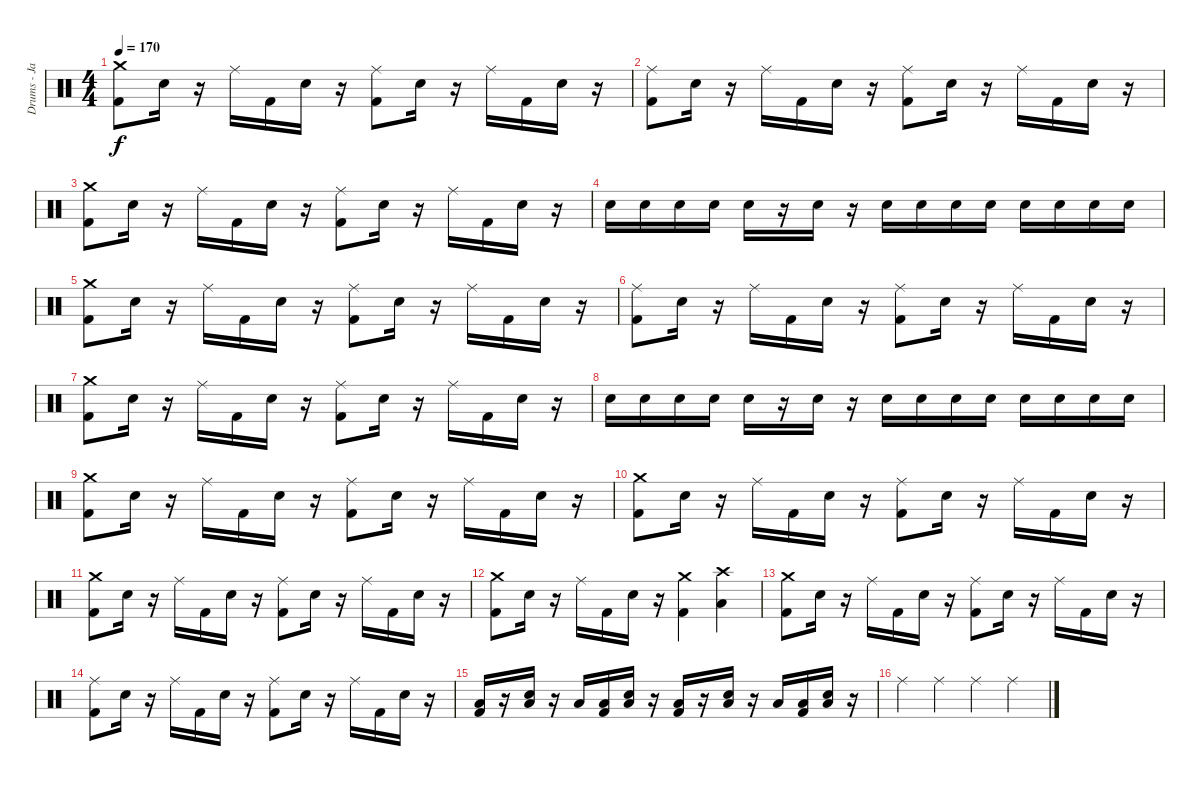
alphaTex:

\track ("Drums - Jasper Blazer" "Drums - Ja") {instrument percussion}
\staff {score}
\articulation defaults
\ts (4 4)
\tempo 170
\clef neutral
\ks c
("Kick (hit) 2" "Crash medium (hit)").8{dy f} "Electric Snare (hit)".16 r.16 "Ride (middle)".16 "Kick (hit) 2".16 "Electric Snare (hit)".16 r.16 ("Kick (hit) 2" "Ride (middle)").8 "Electric Snare (hit)".16 r.16 "Ride (middle)".16 "Kick (hit) 2".16 "Electric Snare (hit)".16 r.16 |
("Kick (hit) 2" "Ride (middle)").8 "Electric Snare (hit)".16 r.16 "Ride (middle)".16 "Kick (hit) 2".16 "Electric Snare (hit)".16 r.16 ("Kick (hit) 2" "Ride (middle)").8 "Electric Snare (hit)".16 r.16 "Ride (middle)".16 "Kick (hit) 2".16 "Electric Snare (hit)".16 r.16 |
("Kick (hit) 2" "Crash medium (hit)").8 "Electric Snare (hit)".16 r.16 "Ride (middle)".16 "Kick (hit) 2".16 "Electric Snare (hit)".16 r.16 ("Kick (hit) 2" "Ride (middle)").8 "Electric Snare (hit)".16 r.16 "Ride (middle)".16 "Kick (hit) 2".16 "Electric Snare (hit)".16 r.16 |
"Electric Snare (hit)".16 "Electric Snare (hit)".16 "Electric Snare (hit)".16 "Electric Snare (hit)".16 "Electric Snare (hit)".16 r.16 "Electric Snare (hit)".16 r.16 "Electric Snare (hit)".16 "Electric Snare (hit)".16 "Electric Snare (hit)".16 "Electric Snare (hit)".16 "Electric Snare (hit)".16 "Electric Snare (hit)".16 "Electric Snare (hit)".16 "Electric Snare (hit)".16 |
("Kick (hit) 2" "Crash medium (hit)").8 "Electric Snare (hit)".16 r.16 "Ride (middle)".16 "Kick (hit) 2".16 "Electric Snare (hit)".16 r.16 ("Kick (hit) 2" "Ride (middle)").8 "Electric Snare (hit)".16 r.16 "Ride (middle)".16 "Kick (hit) 2".16 "Electric Snare (hit)".16 r.16 |
("Kick (hit) 2" "Ride (middle)").8 "Electric Snare (hit)".16 r.16 "Ride (middle)".16 "Kick (hit) 2".16 "Electric Snare (hit)".16 r.16 ("Kick (hit) 2" "Ride (middle)").8 "Electric Snare (hit)".16 r.16 "Ride (middle)".16 "Kick (hit) 2".16 "Electric Snare (hit)".16 r.16 |
("Kick (hit) 2" "Crash medium (hit)").8 "Electric Snare (hit)".16 r.16 "Ride (middle)".16 "Kick (hit) 2".16 "Electric Snare (hit)".16 r.16 ("Kick (hit) 2" "Ride (middle)").8 "Electric Snare (hit)".16 r.16 "Ride (middle)".16 "Kick (hit) 2".16 "Electric Snare (hit)".16 r.16 |
"Electric Snare (hit)".16 "Electric Snare (hit)".16 "Electric Snare (hit)".16 "Electric Snare (hit)".16 "Electric Snare (hit)".16 r.16 "Electric Snare (hit)".16 r.16 "Electric Snare (hit)".16 "Electric Snare (hit)".16 "Electric Snare (hit)".16 "Electric Snare (hit)".16 "Electric Snare (hit)".16 "Electric Snare (hit)".16 "Electric Snare (hit)".16 "Electric Snare (hit)".16 |
("Kick (hit) 2" "Crash medium (hit)").8 "Electric Snare (hit)".16 r.16 "Ride (middle)".16 "Kick (hit) 2".16 "Electric Snare (hit)".16 r.16 ("Kick (hit) 2" "Ride (middle)").8 "Electric Snare (hit)".16 r.16 "Ride (middle)".16 "Kick (hit) 2".16 "Electric Snare (hit)".16 r.16 |
("Kick (hit) 2" "Crash medium (hit)").8 "Electric Snare (hit)".16 r.16 "Ride (middle)".16 "Kick (hit) 2".16 "Electric Snare (hit)".16 r.16 ("Kick (hit) 2" "Ride (middle)").8 "Electric Snare (hit)".16 r.16 "Ride (middle)".16 "Kick (hit) 2".16 "Electric Snare (hit)".16 r.16 |
("Kick (hit) 2" "Crash medium (hit)").8 "Electric Snare (hit)".16 r.16 "Ride (middle)".16 "Kick (hit) 2".16 "Electric Snare (hit)".16 r.16 ("Kick (hit) 2" "Ride (middle)").8 "Electric Snare (hit)".16 r.16 "Ride (middle)".16 "Kick (hit) 2".16 "Electric Snare (hit)".16 r.16 |
("Kick (hit) 2" "Crash medium (hit)").8 "Electric Snare (hit)".16 r.16 "Ride (middle)".16 "Kick (hit) 2".16 "Electric Snare (hit)".16 r.16 ("Kick (hit) 2" "Crash medium (hit)").4 ("Crash high (hit)" "Low Tom (hit)").4 |
("Kick (hit) 2" "Crash medium (hit)").8 "Electric Snare (hit)".16 r.16 "Ride (middle)".16 "Kick (hit) 2".16 "Electric Snare (hit)".16 r.16 ("Kick (hit) 2" "Ride (middle)").8 "Electric Snare (hit)".16 r.16 "Ride (middle)".16 "Kick (hit) 2".16 "Electric Snare (hit)".16 r.16 |
("Kick (hit) 2" "Ride (middle)").8 "Electric Snare (hit)".16 r.16 "Ride (middle)".16 "Kick (hit) 2".16 "Electric Snare (hit)".16 r.16 ("Kick (hit) 2" "Ride (middle)").8 "Electric Snare (hit)".16 r.16 "Ride (middle)".16 "Kick (hit) 2".16 "Electric Snare (hit)".16 r.16 |
("Low Tom (hit)" "Kick (hit) 2").16 r.16 ("Low Tom (hit)" "Electric Snare (hit)").16 r.16 "Low Tom (hit)".16 ("Low Tom (hit)" "Kick (hit) 2").16 ("Low Tom (hit)" "Electric Snare (hit)").16 r.16 ("Low Tom (hit)" "Kick (hit) 2").16 r.16 ("Low Tom (hit)" "Electric Snare (hit)").16 r.16 "Low Tom (hit)".16 ("Low Tom (hit)" "Kick (hit) 2").16 ("Low Tom (hit)" "Electric Snare (hit)").16 r.16 |
"Ride (middle)".4 "Ride (middle)".4 "Ride (middle)".4 "Ride (middle)".4
